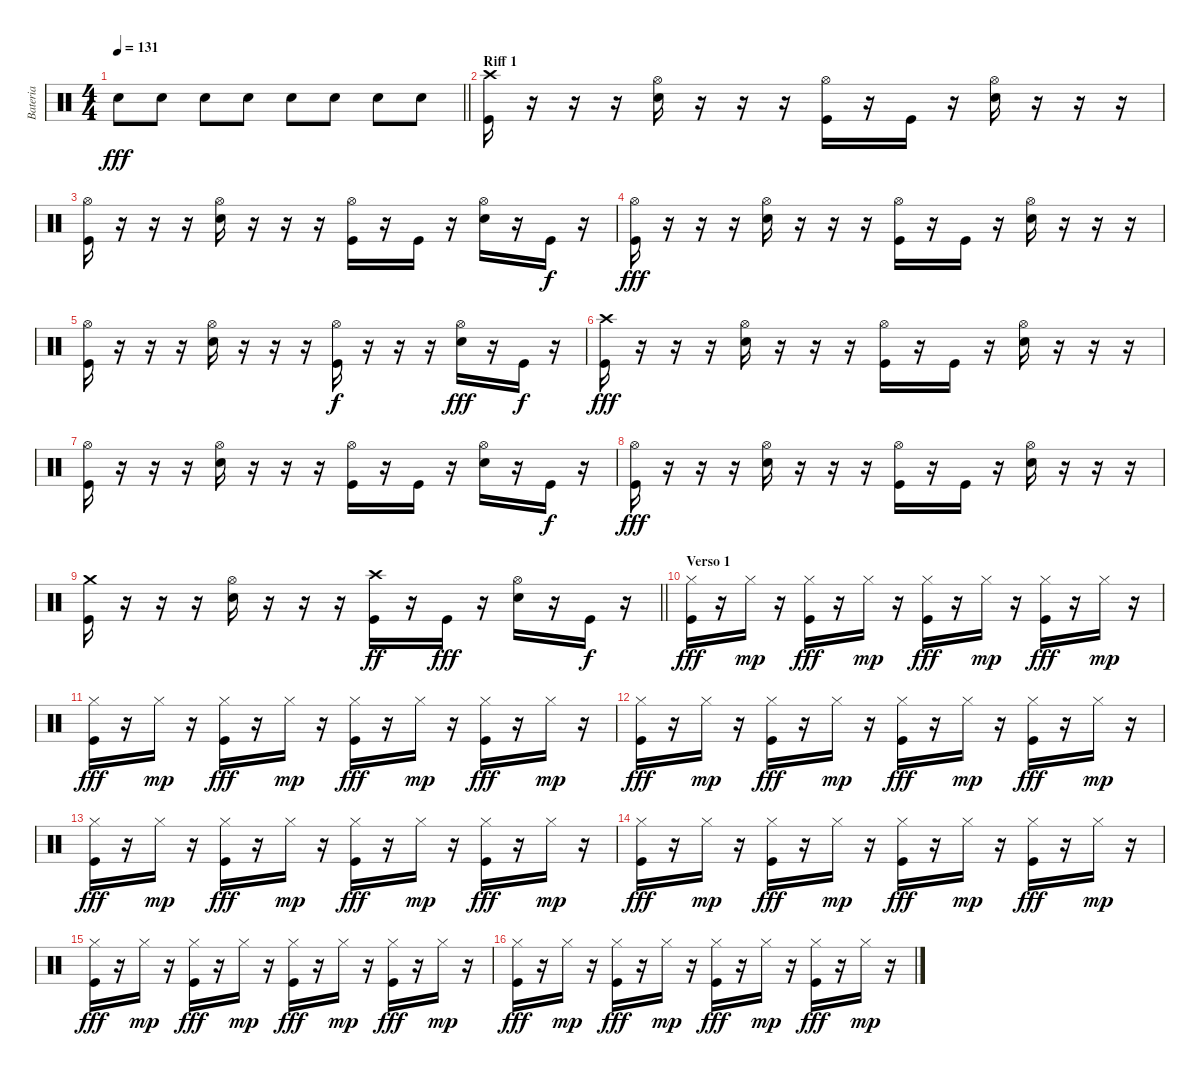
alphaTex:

\track ("Bateria" "Bateria") {instrument percussion}
\staff {score}
\articulation defaults
\ts (4 4)
\tempo 131
\clef neutral
\barLineRight lightlight
\ks c "Electric Snare (hit)".8{dy fff} "Electric Snare (hit)".8 "Electric Snare (hit)".8 "Electric Snare (hit)".8 "Electric Snare (hit)".8 "Electric Snare (hit)".8 "Electric Snare (hit)".8 "Electric Snare (hit)".8
|
\section ("" "Riff 1")
("Crash high (hit)" "Kick (hit)").16 r.16 r.16 r.16 ("Hi-Hat (open)" "Electric Snare (hit)").16 r.16 r.16 r.16 ("Hi-Hat (open)" "Kick (hit)").16 r.16 "Kick (hit)".16 r.16 ("Hi-Hat (open)" "Electric Snare (hit)").16 r.16 r.16 r.16 |
("Hi-Hat (open)" "Kick (hit)").16 r.16 r.16 r.16 ("Hi-Hat (open)" "Electric Snare (hit)").16 r.16 r.16 r.16 ("Hi-Hat (open)" "Kick (hit)").16 r.16 "Kick (hit)".16 r.16 ("Hi-Hat (open)" "Electric Snare (hit)").16 r.16 "Kick (hit)".16{dy f} r.16 |
("Hi-Hat (open)" "Kick (hit)").16{dy fff} r.16 r.16 r.16 ("Hi-Hat (open)" "Electric Snare (hit)").16 r.16 r.16 r.16 ("Hi-Hat (open)" "Kick (hit)").16 r.16 "Kick (hit)".16 r.16 ("Hi-Hat (open)" "Electric Snare (hit)").16 r.16 r.16 r.16 |
("Hi-Hat (open)" "Kick (hit)").16 r.16 r.16 r.16 ("Hi-Hat (open)" "Electric Snare (hit)").16 r.16 r.16 r.16 ("Hi-Hat (open)" "Kick (hit)").16{dy f} r.16 r.16 r.16 ("Hi-Hat (open)" "Electric Snare (hit)").16{dy fff} r.16 "Kick (hit)".16{dy f} r.16 |
("Crash high (hit)" "Kick (hit)").16{dy fff} r.16 r.16 r.16 ("Hi-Hat (open)" "Electric Snare (hit)").16 r.16 r.16 r.16 ("Hi-Hat (open)" "Kick (hit)").16 r.16 "Kick (hit)".16 r.16 ("Hi-Hat (open)" "Electric Snare (hit)").16 r.16 r.16 r.16 |
("Hi-Hat (open)" "Kick (hit)").16 r.16 r.16 r.16 ("Hi-Hat (open)" "Electric Snare (hit)").16 r.16 r.16 r.16 ("Hi-Hat (open)" "Kick (hit)").16 r.16 "Kick (hit)".16 r.16 ("Hi-Hat (open)" "Electric Snare (hit)").16 r.16 "Kick (hit)".16{dy f} r.16 |
("Hi-Hat (open)" "Kick (hit)").16{dy fff} r.16 r.16 r.16 ("Hi-Hat (open)" "Electric Snare (hit)").16 r.16 r.16 r.16 ("Hi-Hat (open)" "Kick (hit)").16 r.16 "Kick (hit)".16 r.16 ("Hi-Hat (open)" "Electric Snare (hit)").16 r.16 r.16 r.16 |
\barLineRight lightlight
("Crash medium (hit)" "Kick (hit)").16 r.16 r.16 r.16 ("Hi-Hat (open)" "Electric Snare (hit)").16 r.16 r.16 r.16 ("Crash high (hit)" "Kick (hit)").16{dy ff} r.16 "Kick (hit)".16{dy fff} r.16 ("Hi-Hat (open)" "Electric Snare (hit)").16 r.16 "Kick (hit)".16{dy f} r.16 |
\section ("" "Verso 1")
("Hi-Hat (closed)" "Kick (hit)").16{dy fff} r.16 "Hi-Hat (closed)".16{dy mp} r.16 ("Hi-Hat (closed)" "Kick (hit)").16{dy fff} r.16 "Hi-Hat (closed)".16{dy mp} r.16 ("Hi-Hat (closed)" "Kick (hit)").16{dy fff} r.16 "Hi-Hat (closed)".16{dy mp} r.16 ("Hi-Hat (closed)" "Kick (hit)").16{dy fff} r.16 "Hi-Hat (closed)".16{dy mp} r.16 |
("Hi-Hat (closed)" "Kick (hit)").16{dy fff} r.16 "Hi-Hat (closed)".16{dy mp} r.16 ("Hi-Hat (closed)" "Kick (hit)").16{dy fff} r.16 "Hi-Hat (closed)".16{dy mp} r.16 ("Hi-Hat (closed)" "Kick (hit)").16{dy fff} r.16 "Hi-Hat (closed)".16{dy mp} r.16 ("Hi-Hat (closed)" "Kick (hit)").16{dy fff} r.16 "Hi-Hat (closed)".16{dy mp} r.16 |
("Hi-Hat (closed)" "Kick (hit)").16{dy fff} r.16 "Hi-Hat (closed)".16{dy mp} r.16 ("Hi-Hat (closed)" "Kick (hit)").16{dy fff} r.16 "Hi-Hat (closed)".16{dy mp} r.16 ("Hi-Hat (closed)" "Kick (hit)").16{dy fff} r.16 "Hi-Hat (closed)".16{dy mp} r.16 ("Hi-Hat (closed)" "Kick (hit)").16{dy fff} r.16 "Hi-Hat (closed)".16{dy mp} r.16 |
("Hi-Hat (closed)" "Kick (hit)").16{dy fff} r.16 "Hi-Hat (closed)".16{dy mp} r.16 ("Hi-Hat (closed)" "Kick (hit)").16{dy fff} r.16 "Hi-Hat (closed)".16{dy mp} r.16 ("Hi-Hat (closed)" "Kick (hit)").16{dy fff} r.16 "Hi-Hat (closed)".16{dy mp} r.16 ("Hi-Hat (closed)" "Kick (hit)").16{dy fff} r.16 "Hi-Hat (closed)".16{dy mp} r.16 |
("Hi-Hat (closed)" "Kick (hit)").16{dy fff} r.16 "Hi-Hat (closed)".16{dy mp} r.16 ("Hi-Hat (closed)" "Kick (hit)").16{dy fff} r.16 "Hi-Hat (closed)".16{dy mp} r.16 ("Hi-Hat (closed)" "Kick (hit)").16{dy fff} r.16 "Hi-Hat (closed)".16{dy mp} r.16 ("Hi-Hat (closed)" "Kick (hit)").16{dy fff} r.16 "Hi-Hat (closed)".16{dy mp} r.16 |
("Hi-Hat (closed)" "Kick (hit)").16{dy fff} r.16 "Hi-Hat (closed)".16{dy mp} r.16 ("Hi-Hat (closed)" "Kick (hit)").16{dy fff} r.16 "Hi-Hat (closed)".16{dy mp} r.16 ("Hi-Hat (closed)" "Kick (hit)").16{dy fff} r.16 "Hi-Hat (closed)".16{dy mp} r.16 ("Hi-Hat (closed)" "Kick (hit)").16{dy fff} r.16 "Hi-Hat (closed)".16{dy mp} r.16 |
("Hi-Hat (closed)" "Kick (hit)").16{dy fff} r.16 "Hi-Hat (closed)".16{dy mp} r.16 ("Hi-Hat (closed)" "Kick (hit)").16{dy fff} r.16 "Hi-Hat (closed)".16{dy mp} r.16 ("Hi-Hat (closed)" "Kick (hit)").16{dy fff} r.16 "Hi-Hat (closed)".16{dy mp} r.16 ("Hi-Hat (closed)" "Kick (hit)").16{dy fff} r.16 "Hi-Hat (closed)".16{dy mp} r.16
